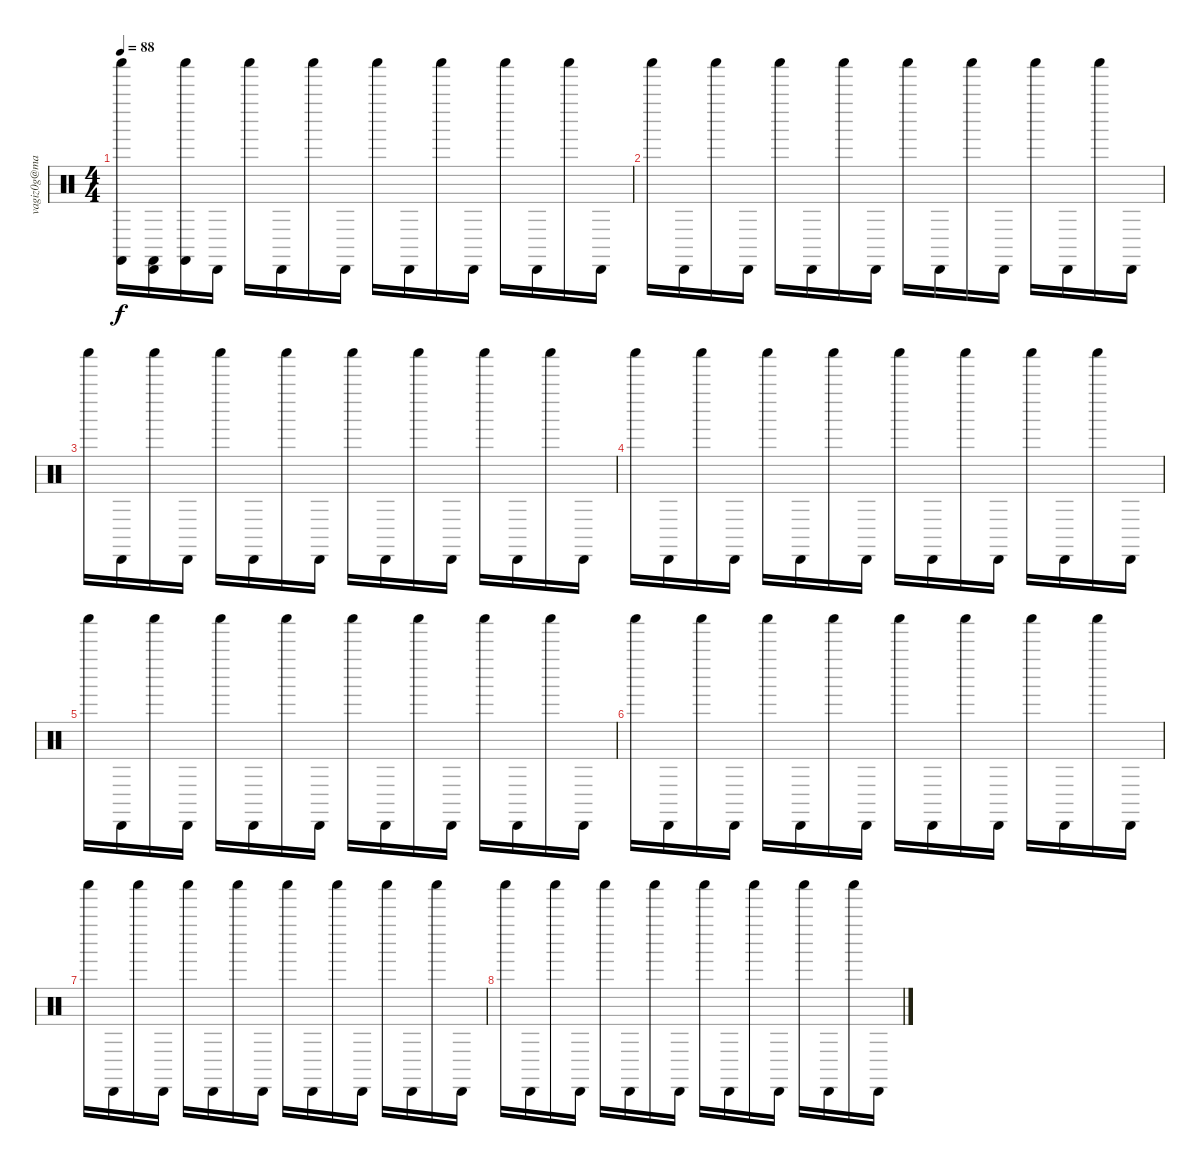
\track ("vagiz0g@mail.ru" "vagiz0g@ma") {solo instrument percussion}
\staff {score}
\articulation defaults
\ts (4 4)
\tempo 88
\clef neutral
\ks c
("Shaker (hit)" "Castanets (hit)").16{dy f} ("Cabasa (hit)" "Castanets (hit)").16 ("Shaker (hit)" "Castanets (hit)").16 "Cabasa (hit)".16 "Shaker (hit)".16 "Cabasa (hit)".16 "Shaker (hit)".16 "Cabasa (hit)".16 "Shaker (hit)".16 "Cabasa (hit)".16 "Shaker (hit)".16 "Cabasa (hit)".16 "Shaker (hit)".16 "Cabasa (hit)".16 "Shaker (hit)".16 "Cabasa (hit)".16 |
"Shaker (hit)".16 "Cabasa (hit)".16 "Shaker (hit)".16 "Cabasa (hit)".16 "Shaker (hit)".16 "Cabasa (hit)".16 "Shaker (hit)".16 "Cabasa (hit)".16 "Shaker (hit)".16 "Cabasa (hit)".16 "Shaker (hit)".16 "Cabasa (hit)".16 "Shaker (hit)".16 "Cabasa (hit)".16 "Shaker (hit)".16 "Cabasa (hit)".16 |
"Shaker (hit)".16 "Cabasa (hit)".16 "Shaker (hit)".16 "Cabasa (hit)".16 "Shaker (hit)".16 "Cabasa (hit)".16 "Shaker (hit)".16 "Cabasa (hit)".16 "Shaker (hit)".16 "Cabasa (hit)".16 "Shaker (hit)".16 "Cabasa (hit)".16 "Shaker (hit)".16 "Cabasa (hit)".16 "Shaker (hit)".16 "Cabasa (hit)".16 |
"Shaker (hit)".16 "Cabasa (hit)".16 "Shaker (hit)".16 "Cabasa (hit)".16 "Shaker (hit)".16 "Cabasa (hit)".16 "Shaker (hit)".16 "Cabasa (hit)".16 "Shaker (hit)".16 "Cabasa (hit)".16 "Shaker (hit)".16 "Cabasa (hit)".16 "Shaker (hit)".16 "Cabasa (hit)".16 "Shaker (hit)".16 "Cabasa (hit)".16 |
"Shaker (hit)".16 "Cabasa (hit)".16 "Shaker (hit)".16 "Cabasa (hit)".16 "Shaker (hit)".16 "Cabasa (hit)".16 "Shaker (hit)".16 "Cabasa (hit)".16 "Shaker (hit)".16 "Cabasa (hit)".16 "Shaker (hit)".16 "Cabasa (hit)".16 "Shaker (hit)".16 "Cabasa (hit)".16 "Shaker (hit)".16 "Cabasa (hit)".16 |
"Shaker (hit)".16 "Cabasa (hit)".16 "Shaker (hit)".16 "Cabasa (hit)".16 "Shaker (hit)".16 "Cabasa (hit)".16 "Shaker (hit)".16 "Cabasa (hit)".16 "Shaker (hit)".16 "Cabasa (hit)".16 "Shaker (hit)".16 "Cabasa (hit)".16 "Shaker (hit)".16 "Cabasa (hit)".16 "Shaker (hit)".16 "Cabasa (hit)".16 |
"Shaker (hit)".16 "Cabasa (hit)".16 "Shaker (hit)".16 "Cabasa (hit)".16 "Shaker (hit)".16 "Cabasa (hit)".16 "Shaker (hit)".16 "Cabasa (hit)".16 "Shaker (hit)".16 "Cabasa (hit)".16 "Shaker (hit)".16 "Cabasa (hit)".16 "Shaker (hit)".16 "Cabasa (hit)".16 "Shaker (hit)".16 "Cabasa (hit)".16 |
"Shaker (hit)".16 "Cabasa (hit)".16 "Shaker (hit)".16 "Cabasa (hit)".16 "Shaker (hit)".16 "Cabasa (hit)".16 "Shaker (hit)".16 "Cabasa (hit)".16 "Shaker (hit)".16 "Cabasa (hit)".16 "Shaker (hit)".16 "Cabasa (hit)".16 "Shaker (hit)".16 "Cabasa (hit)".16 "Shaker (hit)".16 "Cabasa (hit)".16
